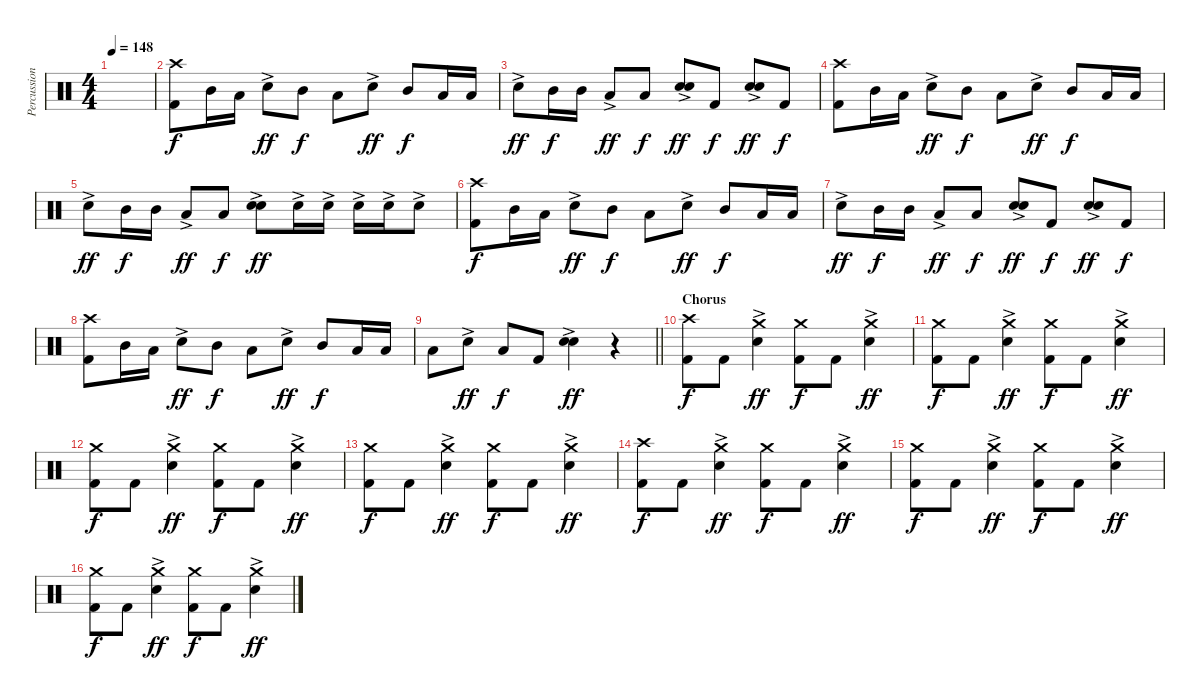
\track ("Percussion" "Percussion") {instrument percussion}
\staff {score}
\articulation defaults
\ts (4 4)
\tempo 148
\clef neutral
\ks c
|
("Crash high (hit)" "Kick (hit) 2").8{dy f} "Mid Tom (hit)".16 "Low Tom (hit)".16 "Electric Snare (hit)"{ac}.8{dy ff} "Mid Tom (hit)".8{dy f} "Low Tom (hit)".8 "Electric Snare (hit)"{ac}.8{dy ff} "Mid Tom (hit)".8{dy f} "Low Tom (hit)".16 "Low Tom (hit)".16 |
"Electric Snare (hit)"{ac}.8{dy ff} "Mid Tom (hit)".16{dy f} "Mid Tom (hit)".16 "Low Tom (hit)"{ac}.8{dy ff} "Low Tom (hit)".8{dy f} ("Electric Snare (hit)"{ac} "Electric Snare (hit)").8{bu 120 dy ff} "Kick (hit) 2".8{dy f} ("Electric Snare (hit)"{ac} "Electric Snare (hit)").8{bu 120 dy ff} "Kick (hit) 2".8{dy f} |
("Crash high (hit)" "Kick (hit) 2").8 "Mid Tom (hit)".16 "Low Tom (hit)".16 "Electric Snare (hit)"{ac}.8{dy ff} "Mid Tom (hit)".8{dy f} "Low Tom (hit)".8 "Electric Snare (hit)"{ac}.8{dy ff} "Mid Tom (hit)".8{dy f} "Low Tom (hit)".16 "Low Tom (hit)".16 |
"Electric Snare (hit)"{ac}.8{dy ff} "Mid Tom (hit)".16{dy f} "Mid Tom (hit)".16 "Low Tom (hit)"{ac}.8{dy ff} "Low Tom (hit)".8{dy f} ("Electric Snare (hit)"{ac} "Electric Snare (hit)").8{bu 120 dy ff} "Electric Snare (hit)"{ac}.16 "Electric Snare (hit)"{ac}.16 "Electric Snare (hit)"{ac}.16 "Electric Snare (hit)"{ac}.16 "Electric Snare (hit)"{ac}.8 |
("Crash high (hit)" "Kick (hit) 2").8{dy f} "Mid Tom (hit)".16 "Low Tom (hit)".16 "Electric Snare (hit)"{ac}.8{dy ff} "Mid Tom (hit)".8{dy f} "Low Tom (hit)".8 "Electric Snare (hit)"{ac}.8{dy ff} "Mid Tom (hit)".8{dy f} "Low Tom (hit)".16 "Low Tom (hit)".16 |
"Electric Snare (hit)"{ac}.8{dy ff} "Mid Tom (hit)".16{dy f} "Mid Tom (hit)".16 "Low Tom (hit)"{ac}.8{dy ff} "Low Tom (hit)".8{dy f} ("Electric Snare (hit)"{ac} "Electric Snare (hit)").8{bu 120 dy ff} "Kick (hit) 2".8{dy f} ("Electric Snare (hit)"{ac} "Electric Snare (hit)").8{bu 120 dy ff} "Kick (hit) 2".8{dy f} |
("Crash high (hit)" "Kick (hit) 2").8 "Mid Tom (hit)".16 "Low Tom (hit)".16 "Electric Snare (hit)"{ac}.8{dy ff} "Mid Tom (hit)".8{dy f} "Low Tom (hit)".8 "Electric Snare (hit)"{ac}.8{dy ff} "Mid Tom (hit)".8{dy f} "Low Tom (hit)".16 "Low Tom (hit)".16 |
\barLineRight lightlight "Low Tom (hit)".8 "Electric Snare (hit)"{ac}.8{dy ff} "Low Tom (hit)".8{dy f} "Kick (hit) 2".8
("Electric Snare (hit)"{ac} "Electric Snare (hit)").4{bu 120 dy ff} r.4 |
\section ("" "Chorus")
("Crash high (hit)" "Kick (hit) 2").8{dy f} "Kick (hit) 2".8 ("Crash medium (hit)" "Electric Snare (hit)"{ac}).4{dy ff} ("Crash medium (hit)" "Kick (hit) 2").8{dy f} "Kick (hit) 2".8 ("Crash medium (hit)" "Electric Snare (hit)"{ac}).4{dy ff} |
("Crash medium (hit)" "Kick (hit) 2").8{dy f} "Kick (hit) 2".8 ("Crash medium (hit)" "Electric Snare (hit)"{ac}).4{dy ff} ("Crash medium (hit)" "Kick (hit) 2").8{dy f} "Kick (hit) 2".8 ("Crash medium (hit)" "Electric Snare (hit)"{ac}).4{dy ff} |
("Crash medium (hit)" "Kick (hit) 2").8{dy f} "Kick (hit) 2".8 ("Crash medium (hit)" "Electric Snare (hit)"{ac}).4{dy ff} ("Crash medium (hit)" "Kick (hit) 2").8{dy f} "Kick (hit) 2".8 ("Crash medium (hit)" "Electric Snare (hit)"{ac}).4{dy ff} |
("Crash medium (hit)" "Kick (hit) 2").8{dy f} "Kick (hit) 2".8 ("Crash medium (hit)" "Electric Snare (hit)"{ac}).4{dy ff} ("Crash medium (hit)" "Kick (hit) 2").8{dy f} "Kick (hit) 2".8 ("Crash medium (hit)" "Electric Snare (hit)"{ac}).4{dy ff} |
("Crash high (hit)" "Kick (hit) 2").8{dy f} "Kick (hit) 2".8 ("Crash medium (hit)" "Electric Snare (hit)"{ac}).4{dy ff} ("Crash medium (hit)" "Kick (hit) 2").8{dy f} "Kick (hit) 2".8 ("Crash medium (hit)" "Electric Snare (hit)"{ac}).4{dy ff} |
("Crash medium (hit)" "Kick (hit) 2").8{dy f} "Kick (hit) 2".8 ("Crash medium (hit)" "Electric Snare (hit)"{ac}).4{dy ff} ("Crash medium (hit)" "Kick (hit) 2").8{dy f} "Kick (hit) 2".8 ("Crash medium (hit)" "Electric Snare (hit)"{ac}).4{dy ff} |
("Crash medium (hit)" "Kick (hit) 2").8{dy f} "Kick (hit) 2".8 ("Crash medium (hit)" "Electric Snare (hit)"{ac}).4{dy ff} ("Crash medium (hit)" "Kick (hit) 2").8{dy f} "Kick (hit) 2".8 ("Crash medium (hit)" "Electric Snare (hit)"{ac}).4{dy ff}
